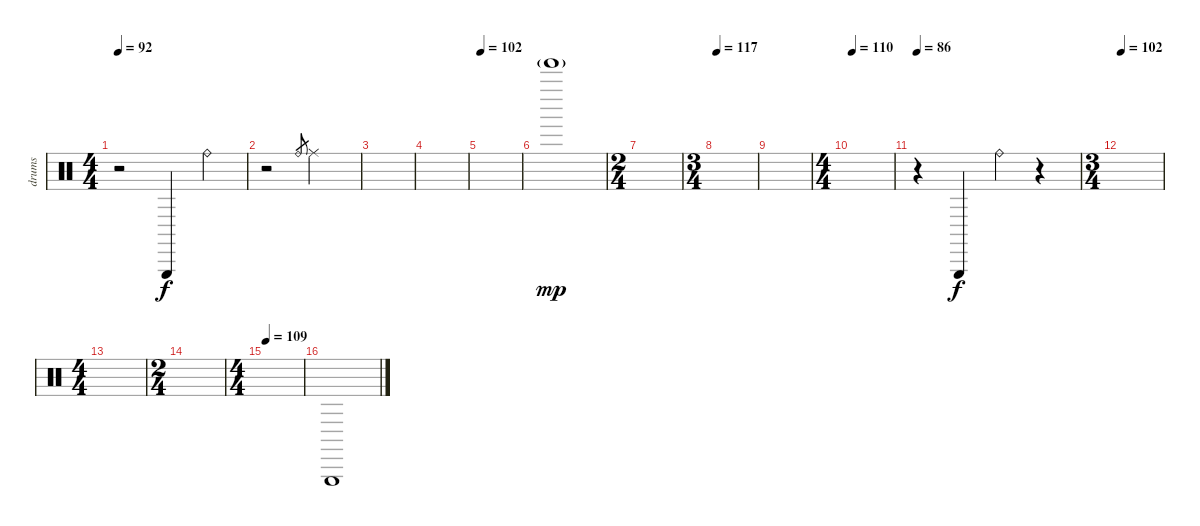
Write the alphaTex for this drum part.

\track ("drums" "drums") {instrument percussion}
\staff {score}
\articulation defaults
\ts (4 4)
\tempo 92
\clef neutral
\ks c
r.2{dy f} "Triangle (hit)".4 "Ride (bell)".4 |
r.2 "Ride (bell)".8{gr} "Ride (middle)".2 |
|
|
\tempo 102
|
"Tinkle Bell (hit)"{g}.1{dy mp} |
\ts (2 4)
|
\ts (3 4)
\tempo 117
|
|
\ts (4 4)
\tempo 110
|
\tempo 86
r.4 "Triangle (hit)".4{dy f} "Ride (bell)".4 r.4 |
\ts (3 4)
\tempo 102
|
\ts (4 4)
|
\ts (2 4)
|
\ts (4 4)
\tempo 109
|
"Triangle (hit)".1
